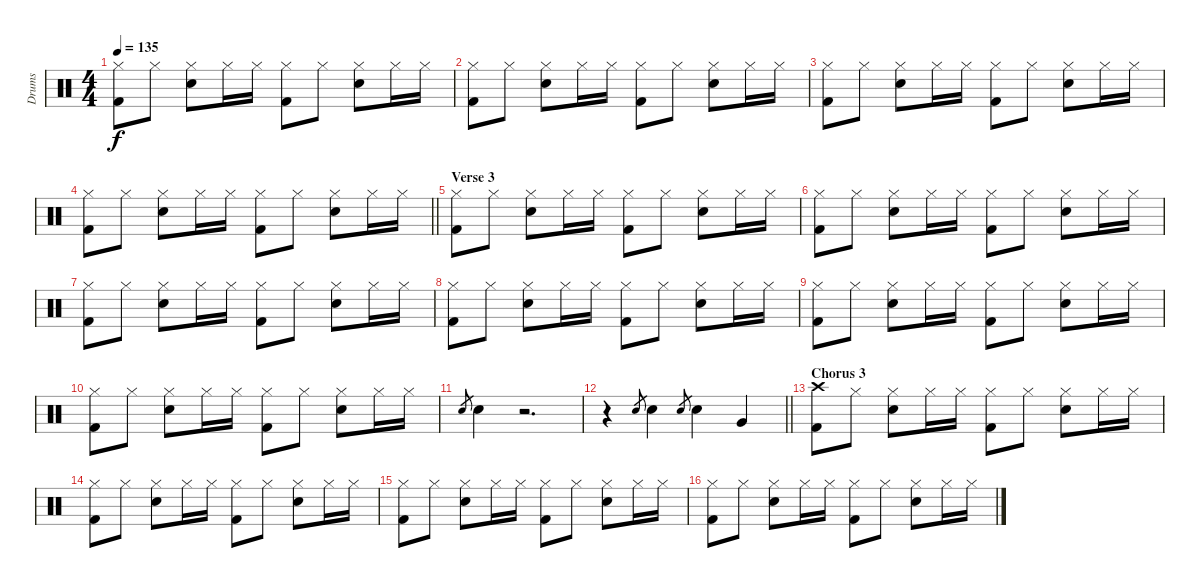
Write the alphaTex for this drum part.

\track ("Drums" "Drums") {instrument percussion}
\staff {score}
\articulation defaults
\ts (4 4)
\tempo 135
\clef neutral
\ks c
("Hi-Hat (closed)" "Kick (hit) 2").8{dy f} "Hi-Hat (closed)".8 ("Hi-Hat (closed)" "Snare (hit) 2").8 "Hi-Hat (closed)".16 "Hi-Hat (closed)".16 ("Hi-Hat (closed)" "Kick (hit) 2").8 "Hi-Hat (closed)".8 ("Hi-Hat (closed)" "Snare (hit) 2").8 "Hi-Hat (closed)".16 "Hi-Hat (closed)".16 |
("Hi-Hat (closed)" "Kick (hit) 2").8 "Hi-Hat (closed)".8 ("Hi-Hat (closed)" "Snare (hit) 2").8 "Hi-Hat (closed)".16 "Hi-Hat (closed)".16 ("Hi-Hat (closed)" "Kick (hit) 2").8 "Hi-Hat (closed)".8 ("Hi-Hat (closed)" "Snare (hit) 2").8 "Hi-Hat (closed)".16 "Hi-Hat (closed)".16 |
("Hi-Hat (closed)" "Kick (hit) 2").8 "Hi-Hat (closed)".8 ("Hi-Hat (closed)" "Snare (hit) 2").8 "Hi-Hat (closed)".16 "Hi-Hat (closed)".16 ("Hi-Hat (closed)" "Kick (hit) 2").8 "Hi-Hat (closed)".8 ("Hi-Hat (closed)" "Snare (hit) 2").8 "Hi-Hat (closed)".16 "Hi-Hat (closed)".16 |
\barLineRight lightlight
("Hi-Hat (closed)" "Kick (hit) 2").8 "Hi-Hat (closed)".8 ("Hi-Hat (closed)" "Snare (hit) 2").8 "Hi-Hat (closed)".16 "Hi-Hat (closed)".16 ("Hi-Hat (closed)" "Kick (hit) 2").8 "Hi-Hat (closed)".8 ("Hi-Hat (closed)" "Snare (hit) 2").8 "Hi-Hat (closed)".16 "Hi-Hat (closed)".16 |
\section ("" "Verse 3")
("Hi-Hat (closed)" "Kick (hit) 2").8 "Hi-Hat (closed)".8 ("Hi-Hat (closed)" "Snare (hit) 2").8 "Hi-Hat (closed)".16 "Hi-Hat (closed)".16 ("Hi-Hat (closed)" "Kick (hit) 2").8 "Hi-Hat (closed)".8 ("Hi-Hat (closed)" "Snare (hit) 2").8 "Hi-Hat (closed)".16 "Hi-Hat (closed)".16 |
("Hi-Hat (closed)" "Kick (hit) 2").8 "Hi-Hat (closed)".8 ("Hi-Hat (closed)" "Snare (hit) 2").8 "Hi-Hat (closed)".16 "Hi-Hat (closed)".16 ("Hi-Hat (closed)" "Kick (hit) 2").8 "Hi-Hat (closed)".8 ("Hi-Hat (closed)" "Snare (hit) 2").8 "Hi-Hat (closed)".16 "Hi-Hat (closed)".16 |
("Hi-Hat (closed)" "Kick (hit) 2").8 "Hi-Hat (closed)".8 ("Hi-Hat (closed)" "Snare (hit) 2").8 "Hi-Hat (closed)".16 "Hi-Hat (closed)".16 ("Hi-Hat (closed)" "Kick (hit) 2").8 "Hi-Hat (closed)".8 ("Hi-Hat (closed)" "Snare (hit) 2").8 "Hi-Hat (closed)".16 "Hi-Hat (closed)".16 |
("Hi-Hat (closed)" "Kick (hit) 2").8 "Hi-Hat (closed)".8 ("Hi-Hat (closed)" "Snare (hit) 2").8 "Hi-Hat (closed)".16 "Hi-Hat (closed)".16 ("Hi-Hat (closed)" "Kick (hit) 2").8 "Hi-Hat (closed)".8 ("Hi-Hat (closed)" "Snare (hit) 2").8 "Hi-Hat (closed)".16 "Hi-Hat (closed)".16 |
("Hi-Hat (closed)" "Kick (hit) 2").8 "Hi-Hat (closed)".8 ("Hi-Hat (closed)" "Snare (hit) 2").8 "Hi-Hat (closed)".16 "Hi-Hat (closed)".16 ("Hi-Hat (closed)" "Kick (hit) 2").8 "Hi-Hat (closed)".8 ("Hi-Hat (closed)" "Snare (hit) 2").8 "Hi-Hat (closed)".16 "Hi-Hat (closed)".16 |
("Hi-Hat (closed)" "Kick (hit) 2").8 "Hi-Hat (closed)".8 ("Hi-Hat (closed)" "Snare (hit) 2").8 "Hi-Hat (closed)".16 "Hi-Hat (closed)".16 ("Hi-Hat (closed)" "Kick (hit) 2").8 "Hi-Hat (closed)".8 ("Hi-Hat (closed)" "Snare (hit) 2").8 "Hi-Hat (closed)".16 "Hi-Hat (closed)".16 |
"Snare (hit) 2".8{gr} "Snare (hit) 2".4 r.2{d} |
\barLineRight lightlight
r.4 "Snare (hit) 2".8{gr} "Snare (hit) 2".4 "Snare (hit) 2".8{gr} "Snare (hit) 2".4 "Very Low Tom (hit)".4 |
\section ("" "Chorus 3")
("Crash high (hit)" "Kick (hit) 2").8 "Hi-Hat (closed)".8 ("Hi-Hat (closed)" "Snare (hit) 2").8 "Hi-Hat (closed)".16 "Hi-Hat (closed)".16 ("Hi-Hat (closed)" "Kick (hit) 2").8 "Hi-Hat (closed)".8 ("Hi-Hat (closed)" "Snare (hit) 2").8 "Hi-Hat (closed)".16 "Hi-Hat (closed)".16 |
("Hi-Hat (closed)" "Kick (hit) 2").8 "Hi-Hat (closed)".8 ("Hi-Hat (closed)" "Snare (hit) 2").8 "Hi-Hat (closed)".16 "Hi-Hat (closed)".16 ("Hi-Hat (closed)" "Kick (hit) 2").8 "Hi-Hat (closed)".8 ("Hi-Hat (closed)" "Snare (hit) 2").8 "Hi-Hat (closed)".16 "Hi-Hat (closed)".16 |
("Hi-Hat (closed)" "Kick (hit) 2").8 "Hi-Hat (closed)".8 ("Hi-Hat (closed)" "Snare (hit) 2").8 "Hi-Hat (closed)".16 "Hi-Hat (closed)".16 ("Hi-Hat (closed)" "Kick (hit) 2").8 "Hi-Hat (closed)".8 ("Hi-Hat (closed)" "Snare (hit) 2").8 "Hi-Hat (closed)".16 "Hi-Hat (closed)".16 |
("Hi-Hat (closed)" "Kick (hit) 2").8 "Hi-Hat (closed)".8 ("Hi-Hat (closed)" "Snare (hit) 2").8 "Hi-Hat (closed)".16 "Hi-Hat (closed)".16 ("Hi-Hat (closed)" "Kick (hit) 2").8 "Hi-Hat (closed)".8 ("Hi-Hat (closed)" "Snare (hit) 2").8 "Hi-Hat (closed)".16 "Hi-Hat (closed)".16
